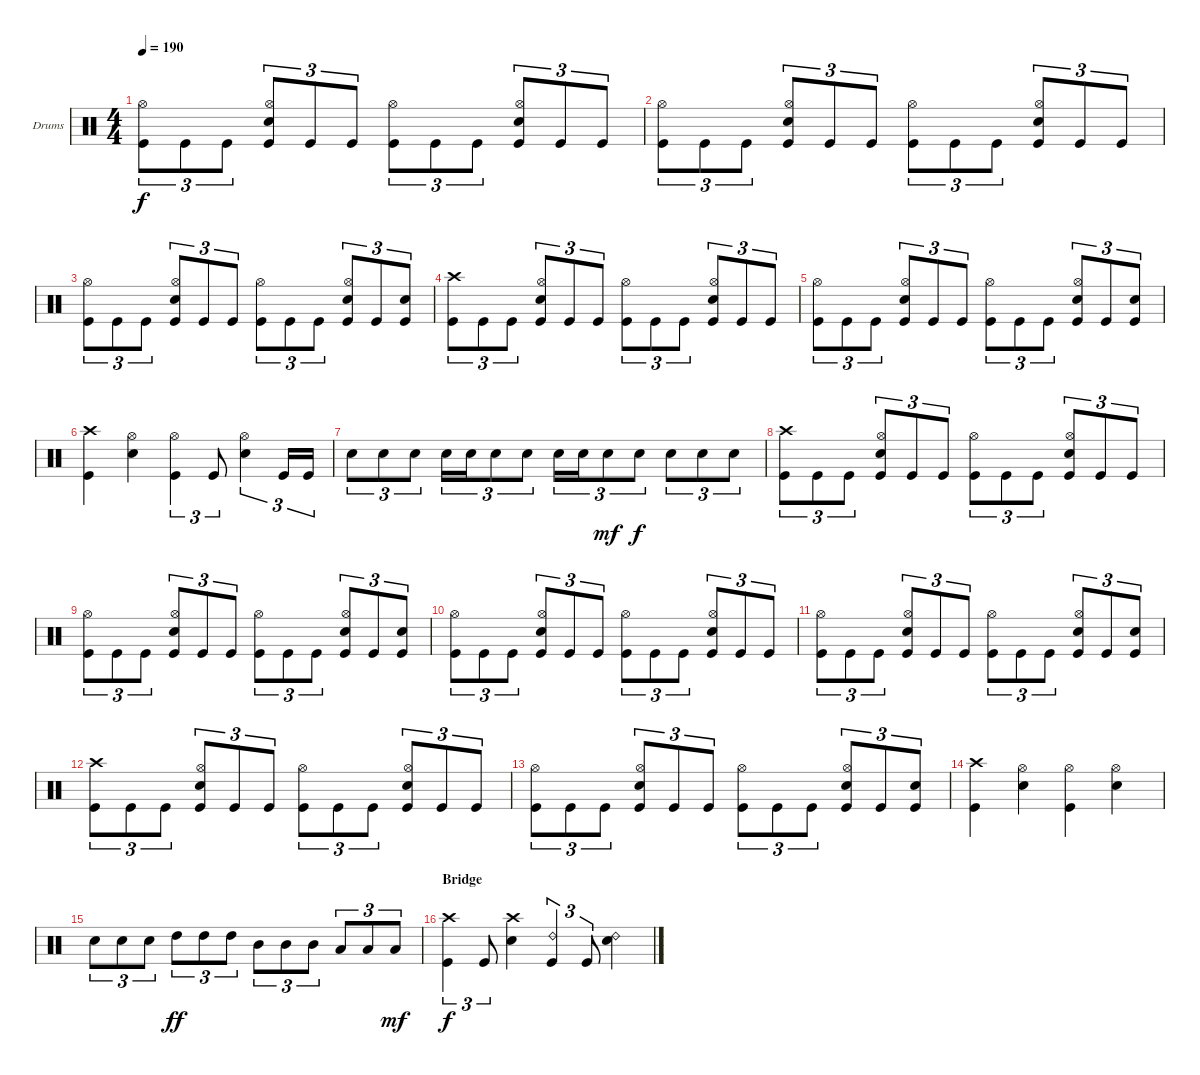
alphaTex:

\bracketExtendMode groupsimilarinstruments
\firstSystemTrackNameOrientation horizontal
\otherSystemsTrackNameOrientation horizontal
\track ("Drums" "Drums") {instrument percussion}
\staff {score}
\articulation defaults
\ts (4 4)
\tempo 190
\clef neutral
\ks c
("Kick (hit)" "Hi-Hat (open)").8{tu (3 2) dy f} "Kick (hit)".8{tu (3 2)} "Kick (hit)".8{tu (3 2)} ("Snare (hit) 2" "Kick (hit)" "Hi-Hat (open)").8{tu (3 2)} "Kick (hit)".8{tu (3 2)} "Kick (hit)".8{tu (3 2)} ("Kick (hit)" "Hi-Hat (open)").8{tu (3 2)} "Kick (hit)".8{tu (3 2)} "Kick (hit)".8{tu (3 2)} ("Snare (hit) 2" "Kick (hit)" "Hi-Hat (open)").8{tu (3 2)} "Kick (hit)".8{tu (3 2)} "Kick (hit)".8{tu (3 2)} |
("Kick (hit)" "Hi-Hat (open)").8{tu (3 2)} "Kick (hit)".8{tu (3 2)} "Kick (hit)".8{tu (3 2)} ("Snare (hit) 2" "Kick (hit)" "Hi-Hat (open)").8{tu (3 2)} "Kick (hit)".8{tu (3 2)} "Kick (hit)".8{tu (3 2)} ("Kick (hit)" "Hi-Hat (open)").8{tu (3 2)} "Kick (hit)".8{tu (3 2)} "Kick (hit)".8{tu (3 2)} ("Snare (hit) 2" "Kick (hit)" "Hi-Hat (open)").8{tu (3 2)} "Kick (hit)".8{tu (3 2)} "Kick (hit)".8{tu (3 2)} |
("Kick (hit)" "Hi-Hat (open)").8{tu (3 2)} "Kick (hit)".8{tu (3 2)} "Kick (hit)".8{tu (3 2)} ("Snare (hit) 2" "Kick (hit)" "Hi-Hat (open)").8{tu (3 2)} "Kick (hit)".8{tu (3 2)} "Kick (hit)".8{tu (3 2)} ("Kick (hit)" "Hi-Hat (open)").8{tu (3 2)} "Kick (hit)".8{tu (3 2)} "Kick (hit)".8{tu (3 2)} ("Snare (hit) 2" "Kick (hit)" "Hi-Hat (open)").8{tu (3 2)} "Kick (hit)".8{tu (3 2)} ("Kick (hit)" "Snare (hit) 2").8{tu (3 2)} |
("Kick (hit)" "Crash high (hit)").8{tu (3 2)} "Kick (hit)".8{tu (3 2)} "Kick (hit)".8{tu (3 2)} ("Snare (hit) 2" "Kick (hit)" "Hi-Hat (open)").8{tu (3 2)} "Kick (hit)".8{tu (3 2)} "Kick (hit)".8{tu (3 2)} ("Kick (hit)" "Hi-Hat (open)").8{tu (3 2)} "Kick (hit)".8{tu (3 2)} "Kick (hit)".8{tu (3 2)} ("Snare (hit) 2" "Kick (hit)" "Hi-Hat (open)").8{tu (3 2)} "Kick (hit)".8{tu (3 2)} "Kick (hit)".8{tu (3 2)} |
("Kick (hit)" "Hi-Hat (open)").8{tu (3 2)} "Kick (hit)".8{tu (3 2)} "Kick (hit)".8{tu (3 2)} ("Snare (hit) 2" "Kick (hit)" "Hi-Hat (open)").8{tu (3 2)} "Kick (hit)".8{tu (3 2)} "Kick (hit)".8{tu (3 2)} ("Kick (hit)" "Hi-Hat (open)").8{tu (3 2)} "Kick (hit)".8{tu (3 2)} "Kick (hit)".8{tu (3 2)} ("Snare (hit) 2" "Kick (hit)" "Hi-Hat (open)").8{tu (3 2)} "Kick (hit)".8{tu (3 2)} ("Kick (hit)" "Snare (hit) 2").8{tu (3 2)} |
("Crash high (hit)" "Kick (hit)").4 ("Snare (hit) 2" "Hi-Hat (open)").4 ("Hi-Hat (open)" "Kick (hit)").4{tu (3 2)} "Kick (hit)".8{tu (3 2)} ("Snare (hit) 2" "Hi-Hat (open)").4{tu (3 2)} "Kick (hit)".16{tu (3 2)} "Kick (hit)".16{tu (3 2)} |
"Snare (hit) 2".8{tu (3 2)} "Snare (hit) 2".8{tu (3 2)} "Snare (hit) 2".8{tu (3 2)} "Snare (hit) 2".16{tu (3 2)} "Snare (hit) 2".16{tu (3 2)} "Snare (hit) 2".8{tu (3 2)} "Snare (hit) 2".8{tu (3 2)} "Snare (hit) 2".16{tu (3 2)} "Snare (hit) 2".16{tu (3 2)} "Snare (hit) 2".8{tu (3 2) dy mf} "Snare (hit) 2".8{tu (3 2) dy f} "Snare (hit) 2".8{tu (3 2)} "Snare (hit) 2".8{tu (3 2)} "Snare (hit) 2".8{tu (3 2)} |
("Kick (hit)" "Crash high (hit)").8{tu (3 2)} "Kick (hit)".8{tu (3 2)} "Kick (hit)".8{tu (3 2)} ("Snare (hit) 2" "Kick (hit)" "Hi-Hat (open)").8{tu (3 2)} "Kick (hit)".8{tu (3 2)} "Kick (hit)".8{tu (3 2)} ("Kick (hit)" "Hi-Hat (open)").8{tu (3 2)} "Kick (hit)".8{tu (3 2)} "Kick (hit)".8{tu (3 2)} ("Snare (hit) 2" "Kick (hit)" "Hi-Hat (open)").8{tu (3 2)} "Kick (hit)".8{tu (3 2)} "Kick (hit)".8{tu (3 2)} |
("Kick (hit)" "Hi-Hat (open)").8{tu (3 2)} "Kick (hit)".8{tu (3 2)} "Kick (hit)".8{tu (3 2)} ("Snare (hit) 2" "Kick (hit)" "Hi-Hat (open)").8{tu (3 2)} "Kick (hit)".8{tu (3 2)} "Kick (hit)".8{tu (3 2)} ("Kick (hit)" "Hi-Hat (open)").8{tu (3 2)} "Kick (hit)".8{tu (3 2)} "Kick (hit)".8{tu (3 2)} ("Snare (hit) 2" "Kick (hit)" "Hi-Hat (open)").8{tu (3 2)} "Kick (hit)".8{tu (3 2)} ("Kick (hit)" "Snare (hit) 2").8{tu (3 2)} |
("Kick (hit)" "Hi-Hat (open)").8{tu (3 2)} "Kick (hit)".8{tu (3 2)} "Kick (hit)".8{tu (3 2)} ("Snare (hit) 2" "Kick (hit)" "Hi-Hat (open)").8{tu (3 2)} "Kick (hit)".8{tu (3 2)} "Kick (hit)".8{tu (3 2)} ("Kick (hit)" "Hi-Hat (open)").8{tu (3 2)} "Kick (hit)".8{tu (3 2)} "Kick (hit)".8{tu (3 2)} ("Snare (hit) 2" "Kick (hit)" "Hi-Hat (open)").8{tu (3 2)} "Kick (hit)".8{tu (3 2)} "Kick (hit)".8{tu (3 2)} |
("Kick (hit)" "Hi-Hat (open)").8{tu (3 2)} "Kick (hit)".8{tu (3 2)} "Kick (hit)".8{tu (3 2)} ("Snare (hit) 2" "Kick (hit)" "Hi-Hat (open)").8{tu (3 2)} "Kick (hit)".8{tu (3 2)} "Kick (hit)".8{tu (3 2)} ("Kick (hit)" "Hi-Hat (open)").8{tu (3 2)} "Kick (hit)".8{tu (3 2)} "Kick (hit)".8{tu (3 2)} ("Snare (hit) 2" "Kick (hit)" "Hi-Hat (open)").8{tu (3 2)} "Kick (hit)".8{tu (3 2)} ("Kick (hit)" "Snare (hit) 2").8{tu (3 2)} |
("Kick (hit)" "Crash high (hit)").8{tu (3 2)} "Kick (hit)".8{tu (3 2)} "Kick (hit)".8{tu (3 2)} ("Snare (hit) 2" "Kick (hit)" "Hi-Hat (open)").8{tu (3 2)} "Kick (hit)".8{tu (3 2)} "Kick (hit)".8{tu (3 2)} ("Kick (hit)" "Hi-Hat (open)").8{tu (3 2)} "Kick (hit)".8{tu (3 2)} "Kick (hit)".8{tu (3 2)} ("Snare (hit) 2" "Kick (hit)" "Hi-Hat (open)").8{tu (3 2)} "Kick (hit)".8{tu (3 2)} "Kick (hit)".8{tu (3 2)} |
("Kick (hit)" "Hi-Hat (open)").8{tu (3 2)} "Kick (hit)".8{tu (3 2)} "Kick (hit)".8{tu (3 2)} ("Snare (hit) 2" "Kick (hit)" "Hi-Hat (open)").8{tu (3 2)} "Kick (hit)".8{tu (3 2)} "Kick (hit)".8{tu (3 2)} ("Kick (hit)" "Hi-Hat (open)").8{tu (3 2)} "Kick (hit)".8{tu (3 2)} "Kick (hit)".8{tu (3 2)} ("Snare (hit) 2" "Kick (hit)" "Hi-Hat (open)").8{tu (3 2)} "Kick (hit)".8{tu (3 2)} ("Kick (hit)" "Snare (hit) 2").8{tu (3 2)} |
("Crash high (hit)" "Kick (hit)").4 ("Snare (hit) 2" "Hi-Hat (open)").4 ("Hi-Hat (open)" "Kick (hit)").4 ("Snare (hit) 2" "Hi-Hat (open)").4 |
"Snare (hit) 2".8{tu (3 2)} "Snare (hit) 2".8{tu (3 2)} "Snare (hit) 2".8{tu (3 2)} "High Tom (hit)".8{tu (3 2) dy ff} "High Tom (hit)".8{tu (3 2)} "High Tom (hit)".8{tu (3 2)} "Mid Tom (hit)".8{tu (3 2)} "Mid Tom (hit)".8{tu (3 2)} "Mid Tom (hit)".8{tu (3 2)} "Low Tom (hit)".8{tu (3 2)} "Low Tom (hit)".8{tu (3 2)} "Low Tom (hit)".8{tu (3 2) dy mf} |
\section ("" "Bridge")
("Crash high (hit)" "Kick (hit)").4{tu (3 2) dy f} "Kick (hit)".8{tu (3 2)} ("Snare (hit) 2" "Crash high (hit)").4 ("Kick (hit)" "Ride (bell) 2").4{tu (3 2)} "Kick (hit)".8{tu (3 2)} ("Snare (hit) 2" "Ride (bell) 2").4
